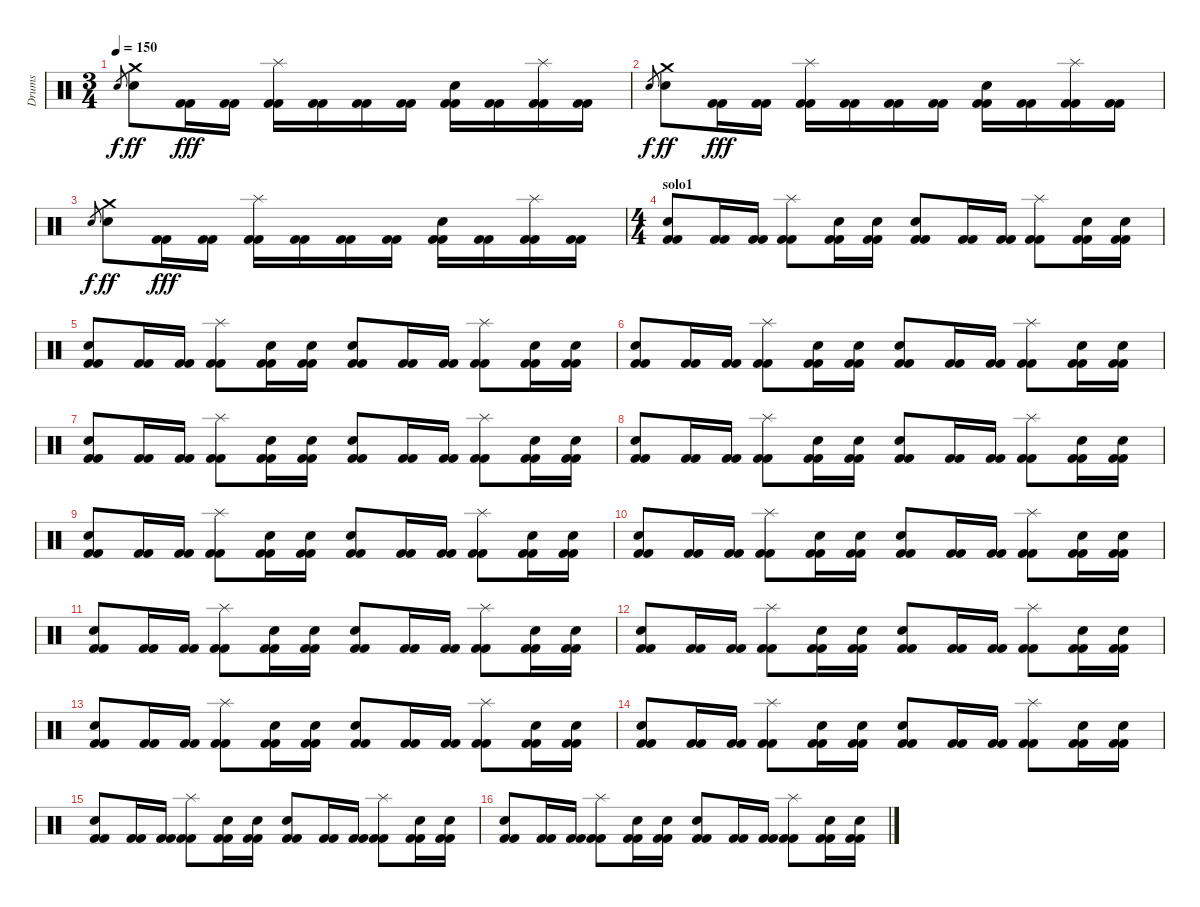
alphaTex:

\track ("Drums" "Drums") {instrument percussion}
\staff {score}
\articulation defaults
\ts (3 4)
\tempo 150
\clef neutral
\ks c "Electric Snare (hit)".8{gr dy f}
("Electric Snare (hit)" "Crash medium (hit)").8{dy ff} ("Kick (hit) 2" "Kick (hit) 2").16{dy fff} ("Kick (hit) 2" "Kick (hit) 2").16 ("Splash (hit)" "Kick (hit) 2" "Kick (hit) 2").16 ("Kick (hit) 2" "Kick (hit) 2").16 ("Kick (hit) 2" "Kick (hit) 2").16 ("Kick (hit) 2" "Kick (hit) 2").16 ("Electric Snare (hit)" "Kick (hit) 2" "Kick (hit) 2").16 ("Kick (hit) 2" "Kick (hit) 2").16 ("Splash (hit)" "Kick (hit) 2" "Kick (hit) 2").16 ("Kick (hit) 2" "Kick (hit) 2").16 |
"Electric Snare (hit)".8{gr dy f} ("Electric Snare (hit)" "Crash medium (hit)").8{dy ff} ("Kick (hit) 2" "Kick (hit) 2").16{dy fff} ("Kick (hit) 2" "Kick (hit) 2").16 ("Splash (hit)" "Kick (hit) 2" "Kick (hit) 2").16 ("Kick (hit) 2" "Kick (hit) 2").16 ("Kick (hit) 2" "Kick (hit) 2").16 ("Kick (hit) 2" "Kick (hit) 2").16 ("Electric Snare (hit)" "Kick (hit) 2" "Kick (hit) 2").16 ("Kick (hit) 2" "Kick (hit) 2").16 ("Splash (hit)" "Kick (hit) 2" "Kick (hit) 2").16 ("Kick (hit) 2" "Kick (hit) 2").16 |
"Electric Snare (hit)".8{gr dy f} ("Electric Snare (hit)" "Crash medium (hit)").8{dy ff} ("Kick (hit) 2" "Kick (hit) 2").16{dy fff} ("Kick (hit) 2" "Kick (hit) 2").16 ("Splash (hit)" "Kick (hit) 2" "Kick (hit) 2").16 ("Kick (hit) 2" "Kick (hit) 2").16 ("Kick (hit) 2" "Kick (hit) 2").16 ("Kick (hit) 2" "Kick (hit) 2").16 ("Electric Snare (hit)" "Kick (hit) 2" "Kick (hit) 2").16 ("Kick (hit) 2" "Kick (hit) 2").16 ("Splash (hit)" "Kick (hit) 2" "Kick (hit) 2").16 ("Kick (hit) 2" "Kick (hit) 2").16 |
\ts (4 4)
\section ("" "solo1")
("Electric Snare (hit)" "Kick (hit) 2" "Kick (hit) 2").8 ("Kick (hit) 2" "Kick (hit) 2").16 ("Kick (hit) 2" "Kick (hit) 2").16 ("Splash (hit)" "Kick (hit) 2" "Kick (hit) 2").8 ("Electric Snare (hit)" "Kick (hit) 2" "Kick (hit) 2").16 ("Electric Snare (hit)" "Kick (hit) 2" "Kick (hit) 2").16 ("Electric Snare (hit)" "Kick (hit) 2" "Kick (hit) 2").8 ("Kick (hit) 2" "Kick (hit) 2").16 ("Kick (hit) 2" "Kick (hit) 2").16 ("Splash (hit)" "Kick (hit) 2" "Kick (hit) 2").8 ("Electric Snare (hit)" "Kick (hit) 2" "Kick (hit) 2").16 ("Electric Snare (hit)" "Kick (hit) 2" "Kick (hit) 2").16 |
("Electric Snare (hit)" "Kick (hit) 2" "Kick (hit) 2").8 ("Kick (hit) 2" "Kick (hit) 2").16 ("Kick (hit) 2" "Kick (hit) 2").16 ("Splash (hit)" "Kick (hit) 2" "Kick (hit) 2").8 ("Electric Snare (hit)" "Kick (hit) 2" "Kick (hit) 2").16 ("Electric Snare (hit)" "Kick (hit) 2" "Kick (hit) 2").16 ("Electric Snare (hit)" "Kick (hit) 2" "Kick (hit) 2").8 ("Kick (hit) 2" "Kick (hit) 2").16 ("Kick (hit) 2" "Kick (hit) 2").16 ("Splash (hit)" "Kick (hit) 2" "Kick (hit) 2").8 ("Electric Snare (hit)" "Kick (hit) 2" "Kick (hit) 2").16 ("Electric Snare (hit)" "Kick (hit) 2" "Kick (hit) 2").16 |
("Electric Snare (hit)" "Kick (hit) 2" "Kick (hit) 2").8 ("Kick (hit) 2" "Kick (hit) 2").16 ("Kick (hit) 2" "Kick (hit) 2").16 ("Splash (hit)" "Kick (hit) 2" "Kick (hit) 2").8 ("Electric Snare (hit)" "Kick (hit) 2" "Kick (hit) 2").16 ("Electric Snare (hit)" "Kick (hit) 2" "Kick (hit) 2").16 ("Electric Snare (hit)" "Kick (hit) 2" "Kick (hit) 2").8 ("Kick (hit) 2" "Kick (hit) 2").16 ("Kick (hit) 2" "Kick (hit) 2").16 ("Splash (hit)" "Kick (hit) 2" "Kick (hit) 2").8 ("Electric Snare (hit)" "Kick (hit) 2" "Kick (hit) 2").16 ("Electric Snare (hit)" "Kick (hit) 2" "Kick (hit) 2").16 |
("Electric Snare (hit)" "Kick (hit) 2" "Kick (hit) 2").8 ("Kick (hit) 2" "Kick (hit) 2").16 ("Kick (hit) 2" "Kick (hit) 2").16 ("Splash (hit)" "Kick (hit) 2" "Kick (hit) 2").8 ("Electric Snare (hit)" "Kick (hit) 2" "Kick (hit) 2").16 ("Electric Snare (hit)" "Kick (hit) 2" "Kick (hit) 2").16 ("Electric Snare (hit)" "Kick (hit) 2" "Kick (hit) 2").8 ("Kick (hit) 2" "Kick (hit) 2").16 ("Kick (hit) 2" "Kick (hit) 2").16 ("Splash (hit)" "Kick (hit) 2" "Kick (hit) 2").8 ("Electric Snare (hit)" "Kick (hit) 2" "Kick (hit) 2").16 ("Electric Snare (hit)" "Kick (hit) 2" "Kick (hit) 2").16 |
("Electric Snare (hit)" "Kick (hit) 2" "Kick (hit) 2").8 ("Kick (hit) 2" "Kick (hit) 2").16 ("Kick (hit) 2" "Kick (hit) 2").16 ("Splash (hit)" "Kick (hit) 2" "Kick (hit) 2").8 ("Electric Snare (hit)" "Kick (hit) 2" "Kick (hit) 2").16 ("Electric Snare (hit)" "Kick (hit) 2" "Kick (hit) 2").16 ("Electric Snare (hit)" "Kick (hit) 2" "Kick (hit) 2").8 ("Kick (hit) 2" "Kick (hit) 2").16 ("Kick (hit) 2" "Kick (hit) 2").16 ("Splash (hit)" "Kick (hit) 2" "Kick (hit) 2").8 ("Electric Snare (hit)" "Kick (hit) 2" "Kick (hit) 2").16 ("Electric Snare (hit)" "Kick (hit) 2" "Kick (hit) 2").16 |
("Electric Snare (hit)" "Kick (hit) 2" "Kick (hit) 2").8 ("Kick (hit) 2" "Kick (hit) 2").16 ("Kick (hit) 2" "Kick (hit) 2").16 ("Splash (hit)" "Kick (hit) 2" "Kick (hit) 2").8 ("Electric Snare (hit)" "Kick (hit) 2" "Kick (hit) 2").16 ("Electric Snare (hit)" "Kick (hit) 2" "Kick (hit) 2").16 ("Electric Snare (hit)" "Kick (hit) 2" "Kick (hit) 2").8 ("Kick (hit) 2" "Kick (hit) 2").16 ("Kick (hit) 2" "Kick (hit) 2").16 ("Splash (hit)" "Kick (hit) 2" "Kick (hit) 2").8 ("Electric Snare (hit)" "Kick (hit) 2" "Kick (hit) 2").16 ("Electric Snare (hit)" "Kick (hit) 2" "Kick (hit) 2").16 |
("Electric Snare (hit)" "Kick (hit) 2" "Kick (hit) 2").8 ("Kick (hit) 2" "Kick (hit) 2").16 ("Kick (hit) 2" "Kick (hit) 2").16 ("Splash (hit)" "Kick (hit) 2" "Kick (hit) 2").8 ("Electric Snare (hit)" "Kick (hit) 2" "Kick (hit) 2").16 ("Electric Snare (hit)" "Kick (hit) 2" "Kick (hit) 2").16 ("Electric Snare (hit)" "Kick (hit) 2" "Kick (hit) 2").8 ("Kick (hit) 2" "Kick (hit) 2").16 ("Kick (hit) 2" "Kick (hit) 2").16 ("Splash (hit)" "Kick (hit) 2" "Kick (hit) 2").8 ("Electric Snare (hit)" "Kick (hit) 2" "Kick (hit) 2").16 ("Electric Snare (hit)" "Kick (hit) 2" "Kick (hit) 2").16 |
("Electric Snare (hit)" "Kick (hit) 2" "Kick (hit) 2").8 ("Kick (hit) 2" "Kick (hit) 2").16 ("Kick (hit) 2" "Kick (hit) 2").16 ("Splash (hit)" "Kick (hit) 2" "Kick (hit) 2").8 ("Electric Snare (hit)" "Kick (hit) 2" "Kick (hit) 2").16 ("Electric Snare (hit)" "Kick (hit) 2" "Kick (hit) 2").16 ("Electric Snare (hit)" "Kick (hit) 2" "Kick (hit) 2").8 ("Kick (hit) 2" "Kick (hit) 2").16 ("Kick (hit) 2" "Kick (hit) 2").16 ("Splash (hit)" "Kick (hit) 2" "Kick (hit) 2").8 ("Electric Snare (hit)" "Kick (hit) 2" "Kick (hit) 2").16 ("Electric Snare (hit)" "Kick (hit) 2" "Kick (hit) 2").16 |
("Electric Snare (hit)" "Kick (hit) 2" "Kick (hit) 2").8 ("Kick (hit) 2" "Kick (hit) 2").16 ("Kick (hit) 2" "Kick (hit) 2").16 ("Splash (hit)" "Kick (hit) 2" "Kick (hit) 2").8 ("Electric Snare (hit)" "Kick (hit) 2" "Kick (hit) 2").16 ("Electric Snare (hit)" "Kick (hit) 2" "Kick (hit) 2").16 ("Electric Snare (hit)" "Kick (hit) 2" "Kick (hit) 2").8 ("Kick (hit) 2" "Kick (hit) 2").16 ("Kick (hit) 2" "Kick (hit) 2").16 ("Splash (hit)" "Kick (hit) 2" "Kick (hit) 2").8 ("Electric Snare (hit)" "Kick (hit) 2" "Kick (hit) 2").16 ("Electric Snare (hit)" "Kick (hit) 2" "Kick (hit) 2").16 |
("Electric Snare (hit)" "Kick (hit) 2" "Kick (hit) 2").8 ("Kick (hit) 2" "Kick (hit) 2").16 ("Kick (hit) 2" "Kick (hit) 2").16 ("Splash (hit)" "Kick (hit) 2" "Kick (hit) 2").8 ("Electric Snare (hit)" "Kick (hit) 2" "Kick (hit) 2").16 ("Electric Snare (hit)" "Kick (hit) 2" "Kick (hit) 2").16 ("Electric Snare (hit)" "Kick (hit) 2" "Kick (hit) 2").8 ("Kick (hit) 2" "Kick (hit) 2").16 ("Kick (hit) 2" "Kick (hit) 2").16 ("Splash (hit)" "Kick (hit) 2" "Kick (hit) 2").8 ("Electric Snare (hit)" "Kick (hit) 2" "Kick (hit) 2").16 ("Electric Snare (hit)" "Kick (hit) 2" "Kick (hit) 2").16 |
("Electric Snare (hit)" "Kick (hit) 2" "Kick (hit) 2").8 ("Kick (hit) 2" "Kick (hit) 2").16 ("Kick (hit) 2" "Kick (hit) 2").16 ("Splash (hit)" "Kick (hit) 2" "Kick (hit) 2").8 ("Electric Snare (hit)" "Kick (hit) 2" "Kick (hit) 2").16 ("Electric Snare (hit)" "Kick (hit) 2" "Kick (hit) 2").16 ("Electric Snare (hit)" "Kick (hit) 2" "Kick (hit) 2").8 ("Kick (hit) 2" "Kick (hit) 2").16 ("Kick (hit) 2" "Kick (hit) 2").16 ("Splash (hit)" "Kick (hit) 2" "Kick (hit) 2").8 ("Electric Snare (hit)" "Kick (hit) 2" "Kick (hit) 2").16 ("Electric Snare (hit)" "Kick (hit) 2" "Kick (hit) 2").16 |
("Electric Snare (hit)" "Kick (hit) 2" "Kick (hit) 2").8 ("Kick (hit) 2" "Kick (hit) 2").16 ("Kick (hit) 2" "Kick (hit) 2").16 ("Splash (hit)" "Kick (hit) 2" "Kick (hit) 2").8 ("Electric Snare (hit)" "Kick (hit) 2" "Kick (hit) 2").16 ("Electric Snare (hit)" "Kick (hit) 2" "Kick (hit) 2").16 ("Electric Snare (hit)" "Kick (hit) 2" "Kick (hit) 2").8 ("Kick (hit) 2" "Kick (hit) 2").16 ("Kick (hit) 2" "Kick (hit) 2").16 ("Splash (hit)" "Kick (hit) 2" "Kick (hit) 2").8 ("Electric Snare (hit)" "Kick (hit) 2" "Kick (hit) 2").16 ("Electric Snare (hit)" "Kick (hit) 2" "Kick (hit) 2").16 |
("Electric Snare (hit)" "Kick (hit) 2" "Kick (hit) 2").8 ("Kick (hit) 2" "Kick (hit) 2").16 ("Kick (hit) 2" "Kick (hit) 2").16 ("Splash (hit)" "Kick (hit) 2" "Kick (hit) 2").8 ("Electric Snare (hit)" "Kick (hit) 2" "Kick (hit) 2").16 ("Electric Snare (hit)" "Kick (hit) 2" "Kick (hit) 2").16 ("Electric Snare (hit)" "Kick (hit) 2" "Kick (hit) 2").8 ("Kick (hit) 2" "Kick (hit) 2").16 ("Kick (hit) 2" "Kick (hit) 2").16 ("Splash (hit)" "Kick (hit) 2" "Kick (hit) 2").8 ("Electric Snare (hit)" "Kick (hit) 2" "Kick (hit) 2").16 ("Electric Snare (hit)" "Kick (hit) 2" "Kick (hit) 2").16
